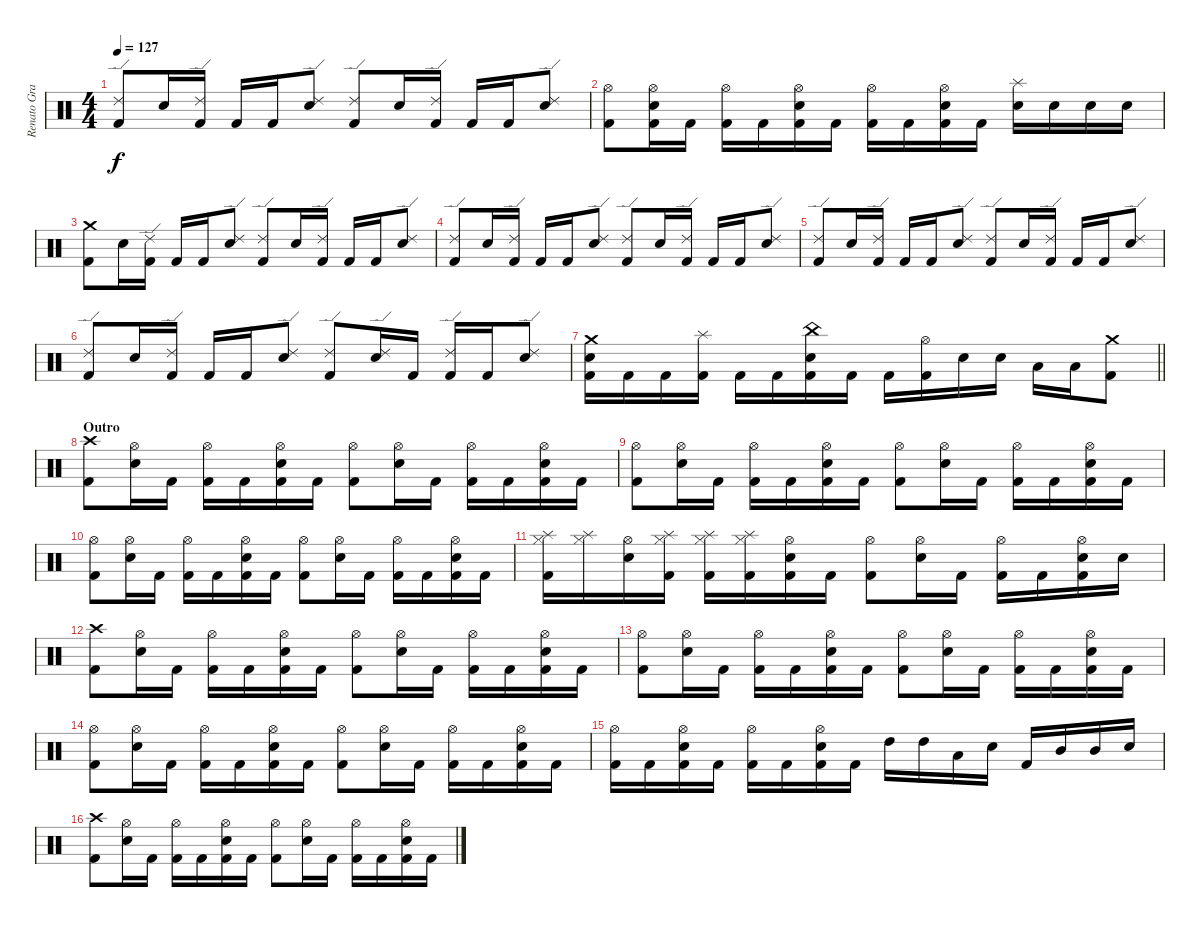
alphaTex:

\track ("Renato Graccia (drums)" "Renato Gra") {instrument percussion}
\staff {score}
\articulation defaults
\ts (4 4)
\tempo 127
\clef neutral
\ks c
("Ride (edge) 2" "Kick (hit) 2").8{dy f} "Snare (hit) 2".16 ("Ride (edge) 2" "Kick (hit) 2").16 "Kick (hit) 2".16 "Kick (hit) 2".16 ("Ride (edge) 2" "Snare (hit) 2").8 ("Ride (edge) 2" "Kick (hit) 2").8 "Snare (hit) 2".16 ("Ride (edge) 2" "Kick (hit) 2").16 "Kick (hit) 2".16 "Kick (hit) 2".16 ("Ride (edge) 2" "Snare (hit) 2").8 |
("Hi-Hat (open)" "Kick (hit) 2").8 ("Hi-Hat (open)" "Snare (hit) 2" "Kick (hit) 2").16 "Kick (hit) 2".16 ("Hi-Hat (open)" "Kick (hit) 2").16 "Kick (hit) 2".16 ("Hi-Hat (open)" "Snare (hit) 2" "Kick (hit) 2").16 "Kick (hit) 2".16 ("Hi-Hat (open)" "Kick (hit) 2").16 "Kick (hit) 2".16 ("Hi-Hat (open)" "Snare (hit) 2" "Kick (hit) 2").16 "Kick (hit) 2".16 ("Splash (hit)" "Snare (hit) 2").16 "Snare (hit) 2".16 "Snare (hit) 2".16 "Snare (hit) 2".16 |
("Crash medium (hit)" "Kick (hit) 2").8 "Snare (hit) 2".16 ("Ride (edge) 2" "Kick (hit) 2").16 "Kick (hit) 2".16 "Kick (hit) 2".16 ("Ride (edge) 2" "Snare (hit) 2").8 ("Ride (edge) 2" "Kick (hit) 2").8 "Snare (hit) 2".16 ("Ride (edge) 2" "Kick (hit) 2").16 "Kick (hit) 2".16 "Kick (hit) 2".16 ("Ride (edge) 2" "Snare (hit) 2").8 |
("Ride (edge) 2" "Kick (hit) 2").8 "Snare (hit) 2".16 ("Ride (edge) 2" "Kick (hit) 2").16 "Kick (hit) 2".16 "Kick (hit) 2".16 ("Ride (edge) 2" "Snare (hit) 2").8 ("Ride (edge) 2" "Kick (hit) 2").8 "Snare (hit) 2".16 ("Ride (edge) 2" "Kick (hit) 2").16 "Kick (hit) 2".16 "Kick (hit) 2".16 ("Ride (edge) 2" "Snare (hit) 2").8 |
("Ride (edge) 2" "Kick (hit) 2").8 "Snare (hit) 2".16 ("Ride (edge) 2" "Kick (hit) 2").16 "Kick (hit) 2".16 "Kick (hit) 2".16 ("Ride (edge) 2" "Snare (hit) 2").8 ("Ride (edge) 2" "Kick (hit) 2").8 "Snare (hit) 2".16 ("Ride (edge) 2" "Kick (hit) 2").16 "Kick (hit) 2".16 "Kick (hit) 2".16 ("Ride (edge) 2" "Snare (hit) 2").8 |
("Ride (edge) 2" "Kick (hit) 2").8 "Snare (hit) 2".16 ("Ride (edge) 2" "Kick (hit) 2").16 "Kick (hit) 2".16 "Kick (hit) 2".16 ("Ride (edge) 2" "Snare (hit) 2").8 ("Ride (edge) 2" "Kick (hit) 2").8 ("Ride (edge) 2" "Snare (hit) 2").16 "Kick (hit) 2".16 ("Ride (edge) 2" "Kick (hit) 2").16 "Kick (hit) 2".16 ("Ride (edge) 2" "Snare (hit) 2").8 |
\barLineRight lightlight
("Crash medium (hit)" "Snare (hit) 2" "Kick (hit) 2").16 "Kick (hit) 2".16 "Kick (hit) 2".16 ("Splash (hit)" "Kick (hit) 2").16 "Kick (hit) 2".16 "Kick (hit) 2".16 ("China (hit)" "Snare (hit) 2" "Kick (hit) 2").16 "Kick (hit) 2".16 "Kick (hit) 2".16 ("Hi-Hat (open)" "Kick (hit) 2").16 "Snare (hit) 2".16 "Snare (hit) 2".16 "Low Tom (hit)".16 "Low Tom (hit)".16 ("Crash medium (hit)" "Kick (hit) 2").8 |
\section ("" "Outro")
("Crash high (hit)" "Kick (hit) 2").8 ("Hi-Hat (open)" "Snare (hit) 2").16 "Kick (hit) 2".16 ("Hi-Hat (open)" "Kick (hit) 2").16 "Kick (hit) 2".16 ("Hi-Hat (open)" "Snare (hit) 2" "Kick (hit) 2").16 "Kick (hit) 2".16 ("Hi-Hat (open)" "Kick (hit) 2").8 ("Hi-Hat (open)" "Snare (hit) 2").16 "Kick (hit) 2".16 ("Hi-Hat (open)" "Kick (hit) 2").16 "Kick (hit) 2".16 ("Hi-Hat (open)" "Snare (hit) 2" "Kick (hit) 2").16 "Kick (hit) 2".16 |
("Hi-Hat (open)" "Kick (hit) 2").8 ("Hi-Hat (open)" "Snare (hit) 2").16 "Kick (hit) 2".16 ("Hi-Hat (open)" "Kick (hit) 2").16 "Kick (hit) 2".16 ("Hi-Hat (open)" "Snare (hit) 2" "Kick (hit) 2").16 "Kick (hit) 2".16 ("Hi-Hat (open)" "Kick (hit) 2").8 ("Hi-Hat (open)" "Snare (hit) 2").16 "Kick (hit) 2".16 ("Hi-Hat (open)" "Kick (hit) 2").16 "Kick (hit) 2".16 ("Hi-Hat (open)" "Snare (hit) 2" "Kick (hit) 2").16 "Kick (hit) 2".16 |
("Hi-Hat (open)" "Kick (hit) 2").8 ("Hi-Hat (open)" "Snare (hit) 2").16 "Kick (hit) 2".16 ("Hi-Hat (open)" "Kick (hit) 2").16 "Kick (hit) 2".16 ("Hi-Hat (open)" "Snare (hit) 2" "Kick (hit) 2").16 "Kick (hit) 2".16 ("Hi-Hat (open)" "Kick (hit) 2").8 ("Hi-Hat (open)" "Snare (hit) 2").16 "Kick (hit) 2".16 ("Hi-Hat (open)" "Kick (hit) 2").16 "Kick (hit) 2".16 ("Hi-Hat (open)" "Snare (hit) 2" "Kick (hit) 2").16 "Kick (hit) 2".16 |
("Splash (hit)" "Hi-Hat (closed)" "Kick (hit) 2").16 ("Splash (hit)" "Hi-Hat (closed)").16 ("Hi-Hat (open)" "Snare (hit) 2").16 ("Splash (hit)" "Hi-Hat (closed)" "Kick (hit) 2").16 ("Splash (hit)" "Hi-Hat (closed)" "Kick (hit) 2").16 ("Splash (hit)" "Hi-Hat (closed)" "Kick (hit) 2").16 ("Hi-Hat (open)" "Snare (hit) 2" "Kick (hit) 2").16 "Kick (hit) 2".16 ("Hi-Hat (open)" "Kick (hit) 2").8 ("Hi-Hat (open)" "Snare (hit) 2").16 "Kick (hit) 2".16 ("Hi-Hat (open)" "Kick (hit) 2").16 "Kick (hit) 2".16 ("Hi-Hat (open)" "Snare (hit) 2" "Kick (hit) 2").16 "Snare (hit) 2".16 |
("Crash high (hit)" "Kick (hit) 2").8 ("Hi-Hat (open)" "Snare (hit) 2").16 "Kick (hit) 2".16 ("Hi-Hat (open)" "Kick (hit) 2").16 "Kick (hit) 2".16 ("Hi-Hat (open)" "Snare (hit) 2" "Kick (hit) 2").16 "Kick (hit) 2".16 ("Hi-Hat (open)" "Kick (hit) 2").8 ("Hi-Hat (open)" "Snare (hit) 2").16 "Kick (hit) 2".16 ("Hi-Hat (open)" "Kick (hit) 2").16 "Kick (hit) 2".16 ("Hi-Hat (open)" "Snare (hit) 2" "Kick (hit) 2").16 "Kick (hit) 2".16 |
("Hi-Hat (open)" "Kick (hit) 2").8 ("Hi-Hat (open)" "Snare (hit) 2").16 "Kick (hit) 2".16 ("Hi-Hat (open)" "Kick (hit) 2").16 "Kick (hit) 2".16 ("Hi-Hat (open)" "Snare (hit) 2" "Kick (hit) 2").16 "Kick (hit) 2".16 ("Hi-Hat (open)" "Kick (hit) 2").8 ("Hi-Hat (open)" "Snare (hit) 2").16 "Kick (hit) 2".16 ("Hi-Hat (open)" "Kick (hit) 2").16 "Kick (hit) 2".16 ("Hi-Hat (open)" "Snare (hit) 2" "Kick (hit) 2").16 "Kick (hit) 2".16 |
("Hi-Hat (open)" "Kick (hit) 2").8 ("Hi-Hat (open)" "Snare (hit) 2").16 "Kick (hit) 2".16 ("Hi-Hat (open)" "Kick (hit) 2").16 "Kick (hit) 2".16 ("Hi-Hat (open)" "Snare (hit) 2" "Kick (hit) 2").16 "Kick (hit) 2".16 ("Hi-Hat (open)" "Kick (hit) 2").8 ("Hi-Hat (open)" "Snare (hit) 2").16 "Kick (hit) 2".16 ("Hi-Hat (open)" "Kick (hit) 2").16 "Kick (hit) 2".16 ("Hi-Hat (open)" "Snare (hit) 2" "Kick (hit) 2").16 "Kick (hit) 2".16 |
("Hi-Hat (open)" "Kick (hit) 2").16 "Kick (hit) 2".16 ("Hi-Hat (open)" "Snare (hit) 2" "Kick (hit) 2").16 "Kick (hit) 2".16 ("Hi-Hat (open)" "Kick (hit) 2").16 "Kick (hit) 2".16 ("Hi-Hat (open)" "Snare (hit) 2" "Kick (hit) 2").16 "Kick (hit) 2".16 "High Tom (hit)".16 "High Tom (hit)".16 "Low Floor Tom (hit)".16 "Snare (hit) 2".16 "Kick (hit) 2".16 "Mid Tom (hit)".16 "Mid Tom (hit)".16 "Snare (hit) 2".16 |
("Crash high (hit)" "Kick (hit) 2").8 ("Hi-Hat (open)" "Snare (hit) 2").16 "Kick (hit) 2".16 ("Hi-Hat (open)" "Kick (hit) 2").16 "Kick (hit) 2".16 ("Hi-Hat (open)" "Snare (hit) 2" "Kick (hit) 2").16 "Kick (hit) 2".16 ("Hi-Hat (open)" "Kick (hit) 2").8 ("Hi-Hat (open)" "Snare (hit) 2").16 "Kick (hit) 2".16 ("Hi-Hat (open)" "Kick (hit) 2").16 "Kick (hit) 2".16 ("Hi-Hat (open)" "Snare (hit) 2" "Kick (hit) 2").16 "Kick (hit) 2".16
